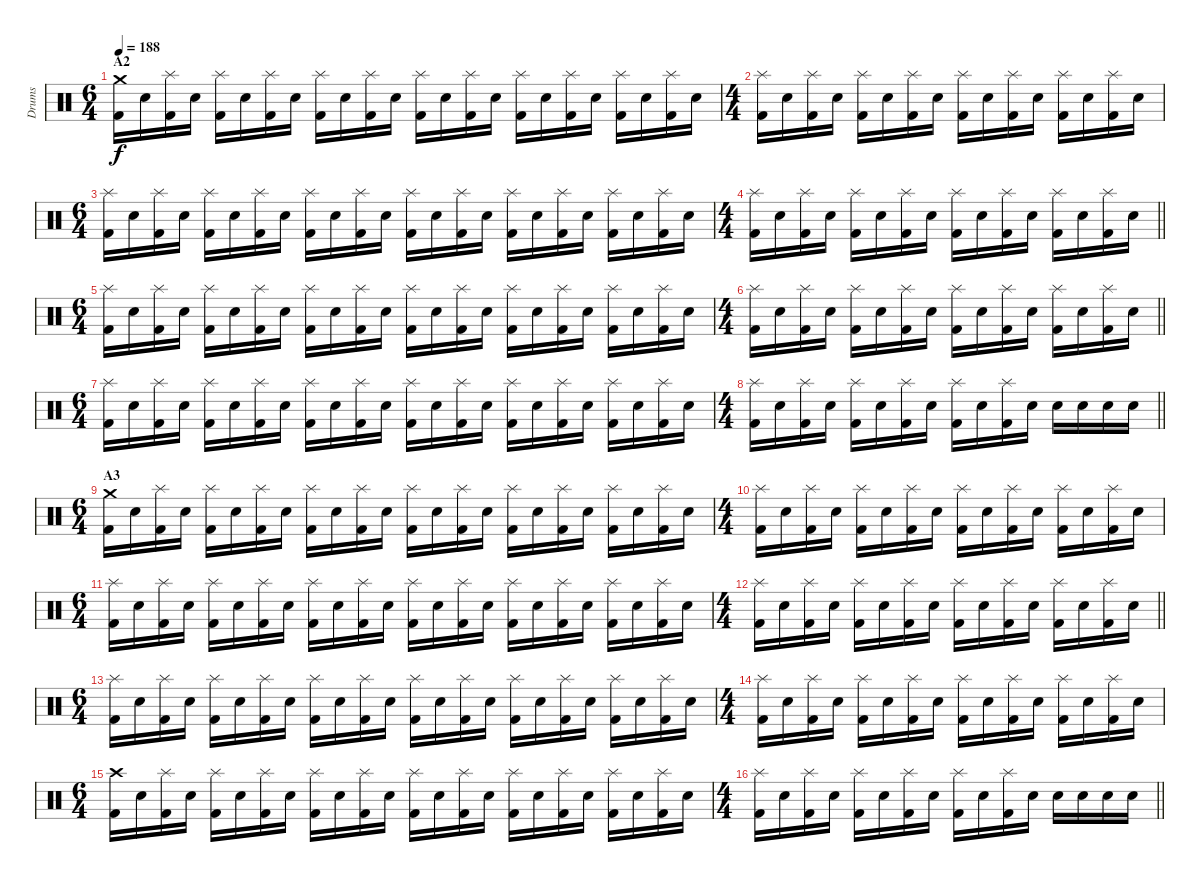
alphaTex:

\track ("Drums" "Drums") {instrument percussion}
\staff {score}
\articulation defaults
\ts (6 4)
\section ("" "A2")
\tempo 188
\clef neutral
\ks c
("Crash medium (hit)" "Kick (hit) 2").16{dy f} "Electric Snare (hit)".16 ("Splash (hit)" "Kick (hit) 2").16 "Electric Snare (hit)".16 ("Splash (hit)" "Kick (hit) 2").16 "Electric Snare (hit)".16 ("Splash (hit)" "Kick (hit) 2").16 "Electric Snare (hit)".16 ("Splash (hit)" "Kick (hit) 2").16 "Electric Snare (hit)".16 ("Splash (hit)" "Kick (hit) 2").16 "Electric Snare (hit)".16 ("Splash (hit)" "Kick (hit) 2").16 "Electric Snare (hit)".16 ("Splash (hit)" "Kick (hit) 2").16 "Electric Snare (hit)".16 ("Splash (hit)" "Kick (hit) 2").16 "Electric Snare (hit)".16 ("Splash (hit)" "Kick (hit) 2").16 "Electric Snare (hit)".16 ("Splash (hit)" "Kick (hit) 2").16 "Electric Snare (hit)".16 ("Splash (hit)" "Kick (hit) 2").16 "Electric Snare (hit)".16 |
\ts (4 4)
("Splash (hit)" "Kick (hit) 2").16 "Electric Snare (hit)".16 ("Splash (hit)" "Kick (hit) 2").16 "Electric Snare (hit)".16 ("Splash (hit)" "Kick (hit) 2").16 "Electric Snare (hit)".16 ("Splash (hit)" "Kick (hit) 2").16 "Electric Snare (hit)".16 ("Splash (hit)" "Kick (hit) 2").16 "Electric Snare (hit)".16 ("Splash (hit)" "Kick (hit) 2").16 "Electric Snare (hit)".16 ("Splash (hit)" "Kick (hit) 2").16 "Electric Snare (hit)".16 ("Splash (hit)" "Kick (hit) 2").16 "Electric Snare (hit)".16 |
\ts (6 4)
("Splash (hit)" "Kick (hit) 2").16 "Electric Snare (hit)".16 ("Splash (hit)" "Kick (hit) 2").16 "Electric Snare (hit)".16 ("Splash (hit)" "Kick (hit) 2").16 "Electric Snare (hit)".16 ("Splash (hit)" "Kick (hit) 2").16 "Electric Snare (hit)".16 ("Splash (hit)" "Kick (hit) 2").16 "Electric Snare (hit)".16 ("Splash (hit)" "Kick (hit) 2").16 "Electric Snare (hit)".16 ("Splash (hit)" "Kick (hit) 2").16 "Electric Snare (hit)".16 ("Splash (hit)" "Kick (hit) 2").16 "Electric Snare (hit)".16 ("Splash (hit)" "Kick (hit) 2").16 "Electric Snare (hit)".16 ("Splash (hit)" "Kick (hit) 2").16 "Electric Snare (hit)".16 ("Splash (hit)" "Kick (hit) 2").16 "Electric Snare (hit)".16 ("Splash (hit)" "Kick (hit) 2").16 "Electric Snare (hit)".16 |
\ts (4 4)
\barLineRight lightlight
("Splash (hit)" "Kick (hit) 2").16 "Electric Snare (hit)".16 ("Splash (hit)" "Kick (hit) 2").16 "Electric Snare (hit)".16 ("Splash (hit)" "Kick (hit) 2").16 "Electric Snare (hit)".16 ("Splash (hit)" "Kick (hit) 2").16 "Electric Snare (hit)".16 ("Splash (hit)" "Kick (hit) 2").16 "Electric Snare (hit)".16 ("Splash (hit)" "Kick (hit) 2").16 "Electric Snare (hit)".16 ("Splash (hit)" "Kick (hit) 2").16 "Electric Snare (hit)".16 ("Splash (hit)" "Kick (hit) 2").16 "Electric Snare (hit)".16 |
\ts (6 4)
\section ("" "")
("Splash (hit)" "Kick (hit) 2").16 "Electric Snare (hit)".16 ("Splash (hit)" "Kick (hit) 2").16 "Electric Snare (hit)".16 ("Splash (hit)" "Kick (hit) 2").16 "Electric Snare (hit)".16 ("Splash (hit)" "Kick (hit) 2").16 "Electric Snare (hit)".16 ("Splash (hit)" "Kick (hit) 2").16 "Electric Snare (hit)".16 ("Splash (hit)" "Kick (hit) 2").16 "Electric Snare (hit)".16 ("Splash (hit)" "Kick (hit) 2").16 "Electric Snare (hit)".16 ("Splash (hit)" "Kick (hit) 2").16 "Electric Snare (hit)".16 ("Splash (hit)" "Kick (hit) 2").16 "Electric Snare (hit)".16 ("Splash (hit)" "Kick (hit) 2").16 "Electric Snare (hit)".16 ("Splash (hit)" "Kick (hit) 2").16 "Electric Snare (hit)".16 ("Splash (hit)" "Kick (hit) 2").16 "Electric Snare (hit)".16 |
\ts (4 4)
\barLineRight lightlight
("Splash (hit)" "Kick (hit) 2").16 "Electric Snare (hit)".16 ("Splash (hit)" "Kick (hit) 2").16 "Electric Snare (hit)".16 ("Splash (hit)" "Kick (hit) 2").16 "Electric Snare (hit)".16 ("Splash (hit)" "Kick (hit) 2").16 "Electric Snare (hit)".16 ("Splash (hit)" "Kick (hit) 2").16 "Electric Snare (hit)".16 ("Splash (hit)" "Kick (hit) 2").16 "Electric Snare (hit)".16 ("Splash (hit)" "Kick (hit) 2").16 "Electric Snare (hit)".16 ("Splash (hit)" "Kick (hit) 2").16 "Electric Snare (hit)".16 |
\ts (6 4)
("Splash (hit)" "Kick (hit) 2").16 "Electric Snare (hit)".16 ("Splash (hit)" "Kick (hit) 2").16 "Electric Snare (hit)".16 ("Splash (hit)" "Kick (hit) 2").16 "Electric Snare (hit)".16 ("Splash (hit)" "Kick (hit) 2").16 "Electric Snare (hit)".16 ("Splash (hit)" "Kick (hit) 2").16 "Electric Snare (hit)".16 ("Splash (hit)" "Kick (hit) 2").16 "Electric Snare (hit)".16 ("Splash (hit)" "Kick (hit) 2").16 "Electric Snare (hit)".16 ("Splash (hit)" "Kick (hit) 2").16 "Electric Snare (hit)".16 ("Splash (hit)" "Kick (hit) 2").16 "Electric Snare (hit)".16 ("Splash (hit)" "Kick (hit) 2").16 "Electric Snare (hit)".16 ("Splash (hit)" "Kick (hit) 2").16 "Electric Snare (hit)".16 ("Splash (hit)" "Kick (hit) 2").16 "Electric Snare (hit)".16 |
\ts (4 4)
\barLineRight lightlight
("Splash (hit)" "Kick (hit) 2").16 "Electric Snare (hit)".16 ("Splash (hit)" "Kick (hit) 2").16 "Electric Snare (hit)".16 ("Splash (hit)" "Kick (hit) 2").16 "Electric Snare (hit)".16 ("Splash (hit)" "Kick (hit) 2").16 "Electric Snare (hit)".16 ("Splash (hit)" "Kick (hit) 2").16 "Electric Snare (hit)".16 ("Splash (hit)" "Kick (hit) 2").16 "Electric Snare (hit)".16 "Electric Snare (hit)".16 "Electric Snare (hit)".16 "Electric Snare (hit)".16 "Electric Snare (hit)".16 |
\ts (6 4)
\section ("" "A3")
("Crash medium (hit)" "Kick (hit) 2").16 "Electric Snare (hit)".16 ("Splash (hit)" "Kick (hit) 2").16 "Electric Snare (hit)".16 ("Splash (hit)" "Kick (hit) 2").16 "Electric Snare (hit)".16 ("Splash (hit)" "Kick (hit) 2").16 "Electric Snare (hit)".16 ("Splash (hit)" "Kick (hit) 2").16 "Electric Snare (hit)".16 ("Splash (hit)" "Kick (hit) 2").16 "Electric Snare (hit)".16 ("Splash (hit)" "Kick (hit) 2").16 "Electric Snare (hit)".16 ("Splash (hit)" "Kick (hit) 2").16 "Electric Snare (hit)".16 ("Splash (hit)" "Kick (hit) 2").16 "Electric Snare (hit)".16 ("Splash (hit)" "Kick (hit) 2").16 "Electric Snare (hit)".16 ("Splash (hit)" "Kick (hit) 2").16 "Electric Snare (hit)".16 ("Splash (hit)" "Kick (hit) 2").16 "Electric Snare (hit)".16 |
\ts (4 4)
("Splash (hit)" "Kick (hit) 2").16 "Electric Snare (hit)".16 ("Splash (hit)" "Kick (hit) 2").16 "Electric Snare (hit)".16 ("Splash (hit)" "Kick (hit) 2").16 "Electric Snare (hit)".16 ("Splash (hit)" "Kick (hit) 2").16 "Electric Snare (hit)".16 ("Splash (hit)" "Kick (hit) 2").16 "Electric Snare (hit)".16 ("Splash (hit)" "Kick (hit) 2").16 "Electric Snare (hit)".16 ("Splash (hit)" "Kick (hit) 2").16 "Electric Snare (hit)".16 ("Splash (hit)" "Kick (hit) 2").16 "Electric Snare (hit)".16 |
\ts (6 4)
("Splash (hit)" "Kick (hit) 2").16 "Electric Snare (hit)".16 ("Splash (hit)" "Kick (hit) 2").16 "Electric Snare (hit)".16 ("Splash (hit)" "Kick (hit) 2").16 "Electric Snare (hit)".16 ("Splash (hit)" "Kick (hit) 2").16 "Electric Snare (hit)".16 ("Splash (hit)" "Kick (hit) 2").16 "Electric Snare (hit)".16 ("Splash (hit)" "Kick (hit) 2").16 "Electric Snare (hit)".16 ("Splash (hit)" "Kick (hit) 2").16 "Electric Snare (hit)".16 ("Splash (hit)" "Kick (hit) 2").16 "Electric Snare (hit)".16 ("Splash (hit)" "Kick (hit) 2").16 "Electric Snare (hit)".16 ("Splash (hit)" "Kick (hit) 2").16 "Electric Snare (hit)".16 ("Splash (hit)" "Kick (hit) 2").16 "Electric Snare (hit)".16 ("Splash (hit)" "Kick (hit) 2").16 "Electric Snare (hit)".16 |
\ts (4 4)
\barLineRight lightlight
("Splash (hit)" "Kick (hit) 2").16 "Electric Snare (hit)".16 ("Splash (hit)" "Kick (hit) 2").16 "Electric Snare (hit)".16 ("Splash (hit)" "Kick (hit) 2").16 "Electric Snare (hit)".16 ("Splash (hit)" "Kick (hit) 2").16 "Electric Snare (hit)".16 ("Splash (hit)" "Kick (hit) 2").16 "Electric Snare (hit)".16 ("Splash (hit)" "Kick (hit) 2").16 "Electric Snare (hit)".16 ("Splash (hit)" "Kick (hit) 2").16 "Electric Snare (hit)".16 ("Splash (hit)" "Kick (hit) 2").16 "Electric Snare (hit)".16 |
\ts (6 4)
\section ("" "")
("Splash (hit)" "Kick (hit) 2").16 "Electric Snare (hit)".16 ("Splash (hit)" "Kick (hit) 2").16 "Electric Snare (hit)".16 ("Splash (hit)" "Kick (hit) 2").16 "Electric Snare (hit)".16 ("Splash (hit)" "Kick (hit) 2").16 "Electric Snare (hit)".16 ("Splash (hit)" "Kick (hit) 2").16 "Electric Snare (hit)".16 ("Splash (hit)" "Kick (hit) 2").16 "Electric Snare (hit)".16 ("Splash (hit)" "Kick (hit) 2").16 "Electric Snare (hit)".16 ("Splash (hit)" "Kick (hit) 2").16 "Electric Snare (hit)".16 ("Splash (hit)" "Kick (hit) 2").16 "Electric Snare (hit)".16 ("Splash (hit)" "Kick (hit) 2").16 "Electric Snare (hit)".16 ("Splash (hit)" "Kick (hit) 2").16 "Electric Snare (hit)".16 ("Splash (hit)" "Kick (hit) 2").16 "Electric Snare (hit)".16 |
\ts (4 4)
("Splash (hit)" "Kick (hit) 2").16 "Electric Snare (hit)".16 ("Splash (hit)" "Kick (hit) 2").16 "Electric Snare (hit)".16 ("Splash (hit)" "Kick (hit) 2").16 "Electric Snare (hit)".16 ("Splash (hit)" "Kick (hit) 2").16 "Electric Snare (hit)".16 ("Splash (hit)" "Kick (hit) 2").16 "Electric Snare (hit)".16 ("Splash (hit)" "Kick (hit) 2").16 "Electric Snare (hit)".16 ("Splash (hit)" "Kick (hit) 2").16 "Electric Snare (hit)".16 ("Splash (hit)" "Kick (hit) 2").16 "Electric Snare (hit)".16 |
\ts (6 4)
("Crash high (hit)" "Kick (hit) 2").16 "Electric Snare (hit)".16 ("Splash (hit)" "Kick (hit) 2").16 "Electric Snare (hit)".16 ("Splash (hit)" "Kick (hit) 2").16 "Electric Snare (hit)".16 ("Splash (hit)" "Kick (hit) 2").16 "Electric Snare (hit)".16 ("Splash (hit)" "Kick (hit) 2").16 "Electric Snare (hit)".16 ("Splash (hit)" "Kick (hit) 2").16 "Electric Snare (hit)".16 ("Splash (hit)" "Kick (hit) 2").16 "Electric Snare (hit)".16 ("Splash (hit)" "Kick (hit) 2").16 "Electric Snare (hit)".16 ("Splash (hit)" "Kick (hit) 2").16 "Electric Snare (hit)".16 ("Splash (hit)" "Kick (hit) 2").16 "Electric Snare (hit)".16 ("Splash (hit)" "Kick (hit) 2").16 "Electric Snare (hit)".16 ("Splash (hit)" "Kick (hit) 2").16 "Electric Snare (hit)".16 |
\ts (4 4)
\barLineRight lightlight
("Splash (hit)" "Kick (hit) 2").16 "Electric Snare (hit)".16 ("Splash (hit)" "Kick (hit) 2").16 "Electric Snare (hit)".16 ("Splash (hit)" "Kick (hit) 2").16 "Electric Snare (hit)".16 ("Splash (hit)" "Kick (hit) 2").16 "Electric Snare (hit)".16 ("Splash (hit)" "Kick (hit) 2").16 "Electric Snare (hit)".16 ("Splash (hit)" "Kick (hit) 2").16 "Electric Snare (hit)".16 "Electric Snare (hit)".16 "Electric Snare (hit)".16 "Electric Snare (hit)".16 "Electric Snare (hit)".16
